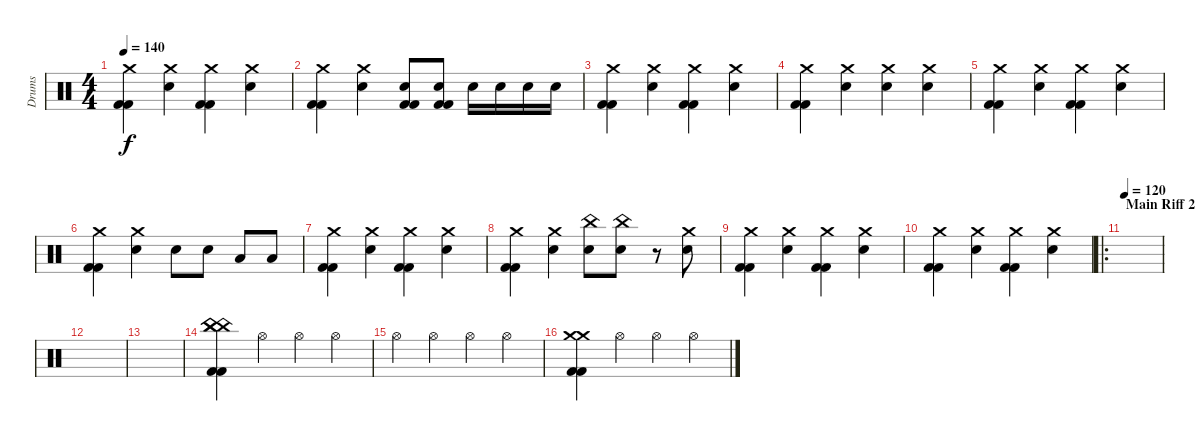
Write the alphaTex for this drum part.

\track ("Drums" "Drums") {instrument percussion}
\staff {score}
\articulation defaults
\ts (4 4)
\tempo 140
\clef neutral
\ks c
("Crash medium (hit)" "Kick (hit) 2" "Kick (hit) 2").4{dy f} ("Electric Snare (hit)" "Crash medium (hit)").4 ("Kick (hit) 2" "Kick (hit) 2" "Crash medium (hit)").4 ("Crash medium (hit)" "Electric Snare (hit)").4 |
("Crash medium (hit)" "Kick (hit) 2" "Kick (hit) 2").4 ("Electric Snare (hit)" "Crash medium (hit)").4 ("Kick (hit) 2" "Kick (hit) 2" "Electric Snare (hit)").8 ("Electric Snare (hit)" "Kick (hit) 2" "Kick (hit) 2").8 "Electric Snare (hit)".16 "Electric Snare (hit)".16 "Electric Snare (hit)".16 "Electric Snare (hit)".16 |
("Crash medium (hit)" "Kick (hit) 2" "Kick (hit) 2").4 ("Electric Snare (hit)" "Crash medium (hit)").4 ("Kick (hit) 2" "Kick (hit) 2" "Crash medium (hit)").4 ("Crash medium (hit)" "Electric Snare (hit)").4 |
("Crash medium (hit)" "Kick (hit) 2" "Kick (hit) 2").4 ("Electric Snare (hit)" "Crash medium (hit)").4 ("Electric Snare (hit)" "Crash medium (hit)").4 ("Crash medium (hit)" "Electric Snare (hit)").4 |
("Crash medium (hit)" "Kick (hit) 2" "Kick (hit) 2").4 ("Electric Snare (hit)" "Crash medium (hit)").4 ("Kick (hit) 2" "Kick (hit) 2" "Crash medium (hit)").4 ("Crash medium (hit)" "Electric Snare (hit)").4 |
("Crash medium (hit)" "Kick (hit) 2" "Kick (hit) 2").4 ("Electric Snare (hit)" "Crash medium (hit)").4 "Electric Snare (hit)".8 "Electric Snare (hit)".8 "Low Tom (hit)".8 "Low Tom (hit)".8 |
("Crash medium (hit)" "Kick (hit) 2" "Kick (hit) 2").4 ("Electric Snare (hit)" "Crash medium (hit)").4 ("Kick (hit) 2" "Kick (hit) 2" "Crash medium (hit)").4 ("Crash medium (hit)" "Electric Snare (hit)").4 |
("Crash medium (hit)" "Kick (hit) 2" "Kick (hit) 2").4 ("Electric Snare (hit)" "Crash medium (hit)").4 ("Electric Snare (hit)" "China (hit)").8 ("China (hit)" "Electric Snare (hit)").8 r.8 ("Electric Snare (hit)" "Crash medium (hit)").8 |
("Crash medium (hit)" "Kick (hit) 2" "Kick (hit) 2").4 ("Electric Snare (hit)" "Crash medium (hit)").4 ("Kick (hit) 2" "Kick (hit) 2" "Crash medium (hit)").4 ("Crash medium (hit)" "Electric Snare (hit)").4 |
("Crash medium (hit)" "Kick (hit) 2" "Kick (hit) 2").4 ("Electric Snare (hit)" "Crash medium (hit)").4 ("Kick (hit) 2" "Kick (hit) 2" "Crash medium (hit)").4 ("Crash medium (hit)" "Electric Snare (hit)").4 |
\ro
\section ("" "Main Riff 2 ")
\tempo 120
|
|
|
("China (hit)" "China (hit)" "China (hit)" "Kick (hit) 2" "Kick (hit) 2").4 "Hi-Hat (open)".4 "Hi-Hat (open)".4 "Hi-Hat (open)".4 |
"Hi-Hat (open)".4 "Hi-Hat (open)".4 "Hi-Hat (open)".4 "Hi-Hat (open)".4 |
("Crash medium (hit)" "Crash medium (hit)" "Kick (hit) 2" "Kick (hit) 2").4 "Hi-Hat (open)".4 "Hi-Hat (open)".4 "Hi-Hat (open)".4
